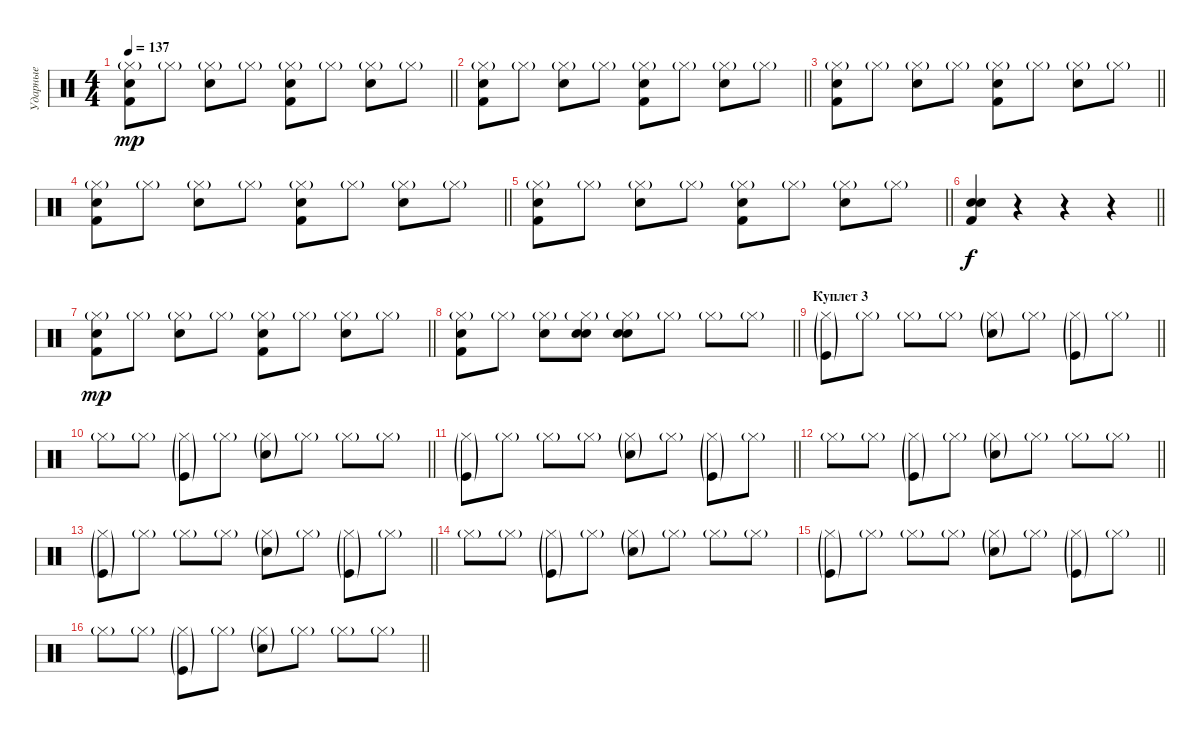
\track ("Ударные" "Ударные") {instrument percussion}
\staff {score}
\articulation defaults
\ts (4 4)
\tempo 137
\clef neutral
\barLineRight lightlight
\ks c
("Kick (hit) 2" "Electric Snare (hit)" "Hi-Hat (closed)"{g}).8{dy mp} "Hi-Hat (closed)"{g}.8 ("Snare (hit) 2" "Hi-Hat (closed)"{g}).8 "Hi-Hat (closed)"{g}.8 ("Kick (hit) 2" "Electric Snare (hit)" "Hi-Hat (closed)"{g}).8 "Hi-Hat (closed)"{g}.8 ("Snare (hit) 2" "Hi-Hat (closed)"{g}).8 "Hi-Hat (closed)"{g}.8 |
\barLineRight lightlight
("Kick (hit) 2" "Electric Snare (hit)" "Hi-Hat (closed)"{g}).8 "Hi-Hat (closed)"{g}.8 ("Snare (hit) 2" "Hi-Hat (closed)"{g}).8 "Hi-Hat (closed)"{g}.8 ("Kick (hit) 2" "Electric Snare (hit)" "Hi-Hat (closed)"{g}).8 "Hi-Hat (closed)"{g}.8 ("Snare (hit) 2" "Hi-Hat (closed)"{g}).8 "Hi-Hat (closed)"{g}.8 |
\barLineRight lightlight
("Kick (hit) 2" "Electric Snare (hit)" "Hi-Hat (closed)"{g}).8 "Hi-Hat (closed)"{g}.8 ("Snare (hit) 2" "Hi-Hat (closed)"{g}).8 "Hi-Hat (closed)"{g}.8 ("Kick (hit) 2" "Electric Snare (hit)" "Hi-Hat (closed)"{g}).8 "Hi-Hat (closed)"{g}.8 ("Snare (hit) 2" "Hi-Hat (closed)"{g}).8 "Hi-Hat (closed)"{g}.8 |
\barLineRight lightlight
("Kick (hit) 2" "Electric Snare (hit)" "Hi-Hat (closed)"{g}).8 "Hi-Hat (closed)"{g}.8 ("Snare (hit) 2" "Hi-Hat (closed)"{g}).8 "Hi-Hat (closed)"{g}.8 ("Kick (hit) 2" "Electric Snare (hit)" "Hi-Hat (closed)"{g}).8 "Hi-Hat (closed)"{g}.8 ("Snare (hit) 2" "Hi-Hat (closed)"{g}).8 "Hi-Hat (closed)"{g}.8 |
\barLineRight lightlight
("Kick (hit) 2" "Electric Snare (hit)" "Hi-Hat (closed)"{g}).8 "Hi-Hat (closed)"{g}.8 ("Snare (hit) 2" "Hi-Hat (closed)"{g}).8 "Hi-Hat (closed)"{g}.8 ("Kick (hit) 2" "Electric Snare (hit)" "Hi-Hat (closed)"{g}).8 "Hi-Hat (closed)"{g}.8 ("Snare (hit) 2" "Hi-Hat (closed)"{g}).8 "Hi-Hat (closed)"{g}.8 |
\barLineRight lightlight
("Snare (hit) 2" "Electric Snare (hit)" "Kick (hit) 2").4{dy f} r.4 r.4 r.4 |
\barLineRight lightlight
("Kick (hit) 2" "Electric Snare (hit)" "Hi-Hat (closed)"{g}).8{dy mp} "Hi-Hat (closed)"{g}.8 ("Snare (hit) 2" "Hi-Hat (closed)"{g}).8 "Hi-Hat (closed)"{g}.8 ("Kick (hit) 2" "Electric Snare (hit)" "Hi-Hat (closed)"{g}).8 "Hi-Hat (closed)"{g}.8 ("Snare (hit) 2" "Hi-Hat (closed)"{g}).8 "Hi-Hat (closed)"{g}.8 |
\barLineRight lightlight
("Kick (hit) 2" "Electric Snare (hit)" "Hi-Hat (closed)"{g}).8 "Hi-Hat (closed)"{g}.8 ("Snare (hit) 2" "Hi-Hat (closed)"{g}).8 ("Snare (hit) 2" "Electric Snare (hit)" "Hi-Hat (closed)"{g}).8 ("Snare (hit) 2" "Electric Snare (hit)" "Hi-Hat (closed)"{g}).8 "Hi-Hat (closed)"{g}.8 "Hi-Hat (closed)"{g}.8 "Hi-Hat (closed)"{g}.8 |
\section ("" "Куплет 3")
\barLineRight lightlight
("Hi-Hat (closed)"{g} "Kick (hit)"{g}).8 "Hi-Hat (closed)"{g}.8 "Hi-Hat (closed)"{g}.8 "Hi-Hat (closed)"{g}.8 ("Hi-Hat (closed)"{g} "Electric Snare (hit)"{g}).8 "Hi-Hat (closed)"{g}.8 ("Hi-Hat (closed)"{g} "Kick (hit)"{g}).8 "Hi-Hat (closed)"{g}.8 |
\barLineRight lightlight "Hi-Hat (closed)"{g}.8 "Hi-Hat (closed)"{g}.8
("Hi-Hat (closed)"{g} "Kick (hit)"{g}).8 "Hi-Hat (closed)"{g}.8 ("Hi-Hat (closed)"{g} "Electric Snare (hit)"{g}).8 "Hi-Hat (closed)"{g}.8 "Hi-Hat (closed)"{g}.8 "Hi-Hat (closed)"{g}.8 |
\barLineRight lightlight
("Hi-Hat (closed)"{g} "Kick (hit)"{g}).8 "Hi-Hat (closed)"{g}.8 "Hi-Hat (closed)"{g}.8 "Hi-Hat (closed)"{g}.8 ("Hi-Hat (closed)"{g} "Electric Snare (hit)"{g}).8 "Hi-Hat (closed)"{g}.8 ("Hi-Hat (closed)"{g} "Kick (hit)"{g}).8 "Hi-Hat (closed)"{g}.8 |
\barLineRight lightlight "Hi-Hat (closed)"{g}.8 "Hi-Hat (closed)"{g}.8
("Hi-Hat (closed)"{g} "Kick (hit)"{g}).8 "Hi-Hat (closed)"{g}.8 ("Hi-Hat (closed)"{g} "Electric Snare (hit)"{g}).8 "Hi-Hat (closed)"{g}.8 "Hi-Hat (closed)"{g}.8 "Hi-Hat (closed)"{g}.8 |
\barLineRight lightlight
("Hi-Hat (closed)"{g} "Kick (hit)"{g}).8 "Hi-Hat (closed)"{g}.8 "Hi-Hat (closed)"{g}.8 "Hi-Hat (closed)"{g}.8 ("Hi-Hat (closed)"{g} "Electric Snare (hit)"{g}).8 "Hi-Hat (closed)"{g}.8 ("Hi-Hat (closed)"{g} "Kick (hit)"{g}).8 "Hi-Hat (closed)"{g}.8 |
"Hi-Hat (closed)"{g}.8 "Hi-Hat (closed)"{g}.8 ("Hi-Hat (closed)"{g} "Kick (hit)"{g}).8 "Hi-Hat (closed)"{g}.8 ("Hi-Hat (closed)"{g} "Electric Snare (hit)"{g}).8 "Hi-Hat (closed)"{g}.8 "Hi-Hat (closed)"{g}.8 "Hi-Hat (closed)"{g}.8 |
\barLineRight lightlight
("Hi-Hat (closed)"{g} "Kick (hit)"{g}).8 "Hi-Hat (closed)"{g}.8 "Hi-Hat (closed)"{g}.8 "Hi-Hat (closed)"{g}.8 ("Hi-Hat (closed)"{g} "Electric Snare (hit)"{g}).8 "Hi-Hat (closed)"{g}.8 ("Hi-Hat (closed)"{g} "Kick (hit)"{g}).8 "Hi-Hat (closed)"{g}.8 |
\barLineRight lightlight "Hi-Hat (closed)"{g}.8 "Hi-Hat (closed)"{g}.8
("Hi-Hat (closed)"{g} "Kick (hit)"{g}).8 "Hi-Hat (closed)"{g}.8 ("Hi-Hat (closed)"{g} "Electric Snare (hit)"{g}).8 "Hi-Hat (closed)"{g}.8 "Hi-Hat (closed)"{g}.8 "Hi-Hat (closed)"{g}.8
